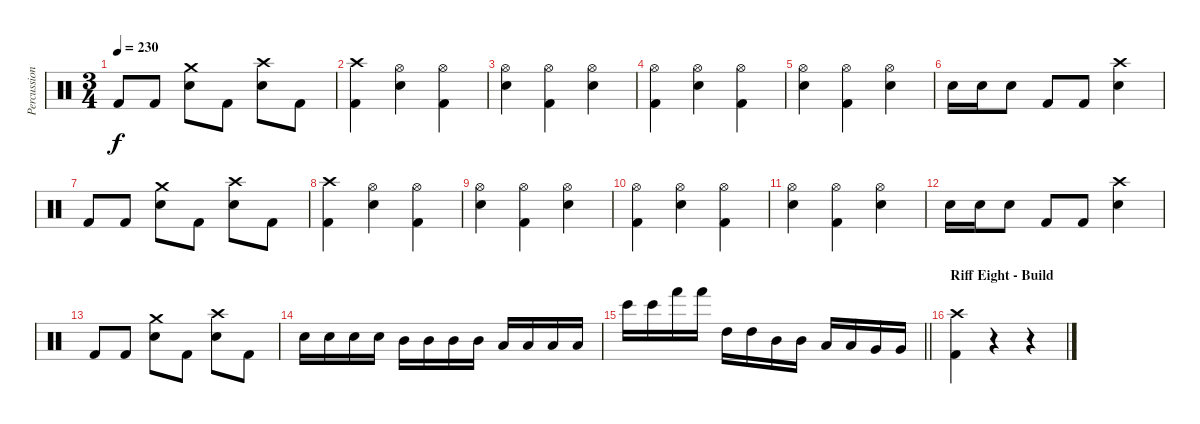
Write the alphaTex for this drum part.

\track ("Percussion" "Percussion") {instrument percussion}
\staff {score}
\articulation defaults
\ts (3 4)
\tempo 230
\clef neutral
\ks c "Kick (hit) 2".8{dy f} "Kick (hit) 2".8
("Crash medium (hit)" "Electric Snare (hit)").8 "Kick (hit) 2".8 ("Crash high (hit)" "Electric Snare (hit)").8 "Kick (hit) 2".8 |
("Crash high (hit)" "Kick (hit) 2").4 ("Hi-Hat (open)" "Electric Snare (hit)").4 ("Hi-Hat (open)" "Kick (hit) 2").4 |
("Hi-Hat (open)" "Electric Snare (hit)").4 ("Hi-Hat (open)" "Kick (hit) 2").4 ("Hi-Hat (open)" "Electric Snare (hit)").4 |
("Hi-Hat (open)" "Kick (hit) 2").4 ("Hi-Hat (open)" "Electric Snare (hit)").4 ("Hi-Hat (open)" "Kick (hit) 2").4 |
("Hi-Hat (open)" "Electric Snare (hit)").4 ("Hi-Hat (open)" "Kick (hit) 2").4 ("Hi-Hat (open)" "Electric Snare (hit)").4 |
"Electric Snare (hit)".16 "Electric Snare (hit)".16 "Electric Snare (hit)".8 "Kick (hit) 2".8 "Kick (hit) 2".8 ("Crash high (hit)" "Electric Snare (hit)").4 |
"Kick (hit) 2".8 "Kick (hit) 2".8 ("Crash medium (hit)" "Electric Snare (hit)").8 "Kick (hit) 2".8 ("Crash high (hit)" "Electric Snare (hit)").8 "Kick (hit) 2".8 |
("Crash high (hit)" "Kick (hit) 2").4 ("Hi-Hat (open)" "Electric Snare (hit)").4 ("Hi-Hat (open)" "Kick (hit) 2").4 |
("Hi-Hat (open)" "Electric Snare (hit)").4 ("Hi-Hat (open)" "Kick (hit) 2").4 ("Hi-Hat (open)" "Electric Snare (hit)").4 |
("Hi-Hat (open)" "Kick (hit) 2").4 ("Hi-Hat (open)" "Electric Snare (hit)").4 ("Hi-Hat (open)" "Kick (hit) 2").4 |
("Hi-Hat (open)" "Electric Snare (hit)").4 ("Hi-Hat (open)" "Kick (hit) 2").4 ("Hi-Hat (open)" "Electric Snare (hit)").4 |
"Electric Snare (hit)".16 "Electric Snare (hit)".16 "Electric Snare (hit)".8 "Kick (hit) 2".8 "Kick (hit) 2".8 ("Crash high (hit)" "Electric Snare (hit)").4 |
"Kick (hit) 2".8 "Kick (hit) 2".8 ("Crash medium (hit)" "Electric Snare (hit)").8 "Kick (hit) 2".8 ("Crash high (hit)" "Electric Snare (hit)").8 "Kick (hit) 2".8 |
"Electric Snare (hit)".16 "Electric Snare (hit)".16 "Electric Snare (hit)".16 "Electric Snare (hit)".16 "Mid Tom (hit)".16 "Mid Tom (hit)".16 "Mid Tom (hit)".16 "Mid Tom (hit)".16 "Low Tom (hit)".16 "Low Tom (hit)".16 "Low Tom (hit)".16 "Low Tom (hit)".16 |
\barLineRight lightlight "Bongo High (hit)".16 "Bongo High (hit)".16 "Hand (hit)".16 "Hand (hit)".16 "High Tom (hit)".16 "High Tom (hit)".16 "Mid Tom (hit)".16 "Mid Tom (hit)".16 "Low Tom (hit)".16 "Low Tom (hit)".16 "Very Low Tom (hit)".16 "Very Low Tom (hit)".16
|
\section ("" "Riff Eight - Build")
("Crash high (hit)" "Kick (hit) 2").4 r.4 r.4
